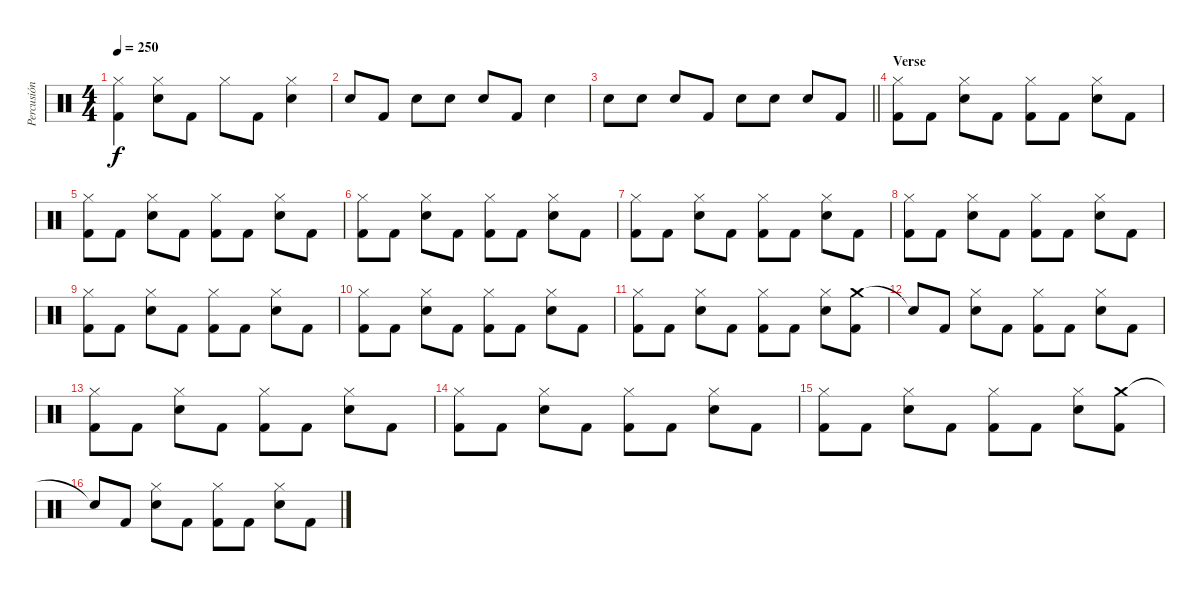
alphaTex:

\track ("Percusión" "Percusión") {instrument percussion}
\staff {score}
\articulation defaults
\ts (4 4)
\tempo 250
\clef neutral
\ks c
("Hi-Hat (closed)" "Kick (hit) 2").4{dy f} ("Electric Snare (hit)" "Hi-Hat (closed)").8 "Kick (hit) 2".8 "Hi-Hat (closed)".8 "Kick (hit) 2".8 ("Electric Snare (hit)" "Hi-Hat (closed)").4 |
"Electric Snare (hit)".8 "Kick (hit) 2".8 "Electric Snare (hit)".8 "Electric Snare (hit)".8 "Electric Snare (hit)".8 "Kick (hit) 2".8 "Electric Snare (hit)".4 |
\barLineRight lightlight "Electric Snare (hit)".8 "Electric Snare (hit)".8 "Electric Snare (hit)".8 "Kick (hit) 2".8 "Electric Snare (hit)".8 "Electric Snare (hit)".8 "Electric Snare (hit)".8 "Kick (hit) 2".8
|
\section ("" "Verse")
("Hi-Hat (closed)" "Kick (hit) 2").8 "Kick (hit) 2".8 ("Electric Snare (hit)" "Hi-Hat (closed)").8 "Kick (hit) 2".8 ("Hi-Hat (closed)" "Kick (hit) 2").8 "Kick (hit) 2".8 ("Electric Snare (hit)" "Hi-Hat (closed)").8 "Kick (hit) 2".8 |
("Hi-Hat (closed)" "Kick (hit) 2").8 "Kick (hit) 2".8 ("Electric Snare (hit)" "Hi-Hat (closed)").8 "Kick (hit) 2".8 ("Hi-Hat (closed)" "Kick (hit) 2").8 "Kick (hit) 2".8 ("Electric Snare (hit)" "Hi-Hat (closed)").8 "Kick (hit) 2".8 |
("Hi-Hat (closed)" "Kick (hit) 2").8 "Kick (hit) 2".8 ("Electric Snare (hit)" "Hi-Hat (closed)").8 "Kick (hit) 2".8 ("Hi-Hat (closed)" "Kick (hit) 2").8 "Kick (hit) 2".8 ("Electric Snare (hit)" "Hi-Hat (closed)").8 "Kick (hit) 2".8 |
("Hi-Hat (closed)" "Kick (hit) 2").8 "Kick (hit) 2".8 ("Electric Snare (hit)" "Hi-Hat (closed)").8 "Kick (hit) 2".8 ("Hi-Hat (closed)" "Kick (hit) 2").8 "Kick (hit) 2".8 ("Electric Snare (hit)" "Hi-Hat (closed)").8 "Kick (hit) 2".8 |
("Hi-Hat (closed)" "Kick (hit) 2").8 "Kick (hit) 2".8 ("Electric Snare (hit)" "Hi-Hat (closed)").8 "Kick (hit) 2".8 ("Hi-Hat (closed)" "Kick (hit) 2").8 "Kick (hit) 2".8 ("Electric Snare (hit)" "Hi-Hat (closed)").8 "Kick (hit) 2".8 |
("Hi-Hat (closed)" "Kick (hit) 2").8 "Kick (hit) 2".8 ("Electric Snare (hit)" "Hi-Hat (closed)").8 "Kick (hit) 2".8 ("Hi-Hat (closed)" "Kick (hit) 2").8 "Kick (hit) 2".8 ("Electric Snare (hit)" "Hi-Hat (closed)").8 "Kick (hit) 2".8 |
("Hi-Hat (closed)" "Kick (hit) 2").8 "Kick (hit) 2".8 ("Electric Snare (hit)" "Hi-Hat (closed)").8 "Kick (hit) 2".8 ("Hi-Hat (closed)" "Kick (hit) 2").8 "Kick (hit) 2".8 ("Electric Snare (hit)" "Hi-Hat (closed)").8 "Kick (hit) 2".8 |
("Hi-Hat (closed)" "Kick (hit) 2").8 "Kick (hit) 2".8 ("Electric Snare (hit)" "Hi-Hat (closed)").8 "Kick (hit) 2".8 ("Hi-Hat (closed)" "Kick (hit) 2").8 "Kick (hit) 2".8 ("Electric Snare (hit)" "Hi-Hat (closed)").8 ("Crash medium (hit)" "Kick (hit) 2").8 |
"Snare (hit)"{t}.8 "Kick (hit) 2".8 ("Electric Snare (hit)" "Hi-Hat (closed)").8 "Kick (hit) 2".8 ("Hi-Hat (closed)" "Kick (hit) 2").8 "Kick (hit) 2".8 ("Electric Snare (hit)" "Hi-Hat (closed)").8 "Kick (hit) 2".8 |
("Hi-Hat (closed)" "Kick (hit) 2").8 "Kick (hit) 2".8 ("Electric Snare (hit)" "Hi-Hat (closed)").8 "Kick (hit) 2".8 ("Hi-Hat (closed)" "Kick (hit) 2").8 "Kick (hit) 2".8 ("Electric Snare (hit)" "Hi-Hat (closed)").8 "Kick (hit) 2".8 |
("Hi-Hat (closed)" "Kick (hit) 2").8 "Kick (hit) 2".8 ("Electric Snare (hit)" "Hi-Hat (closed)").8 "Kick (hit) 2".8 ("Hi-Hat (closed)" "Kick (hit) 2").8 "Kick (hit) 2".8 ("Electric Snare (hit)" "Hi-Hat (closed)").8 "Kick (hit) 2".8 |
("Hi-Hat (closed)" "Kick (hit) 2").8 "Kick (hit) 2".8 ("Electric Snare (hit)" "Hi-Hat (closed)").8 "Kick (hit) 2".8 ("Hi-Hat (closed)" "Kick (hit) 2").8 "Kick (hit) 2".8 ("Electric Snare (hit)" "Hi-Hat (closed)").8 ("Crash medium (hit)" "Kick (hit) 2").8 |
"Snare (hit)"{t}.8 "Kick (hit) 2".8 ("Electric Snare (hit)" "Hi-Hat (closed)").8 "Kick (hit) 2".8 ("Hi-Hat (closed)" "Kick (hit) 2").8 "Kick (hit) 2".8 ("Electric Snare (hit)" "Hi-Hat (closed)").8 "Kick (hit) 2".8
